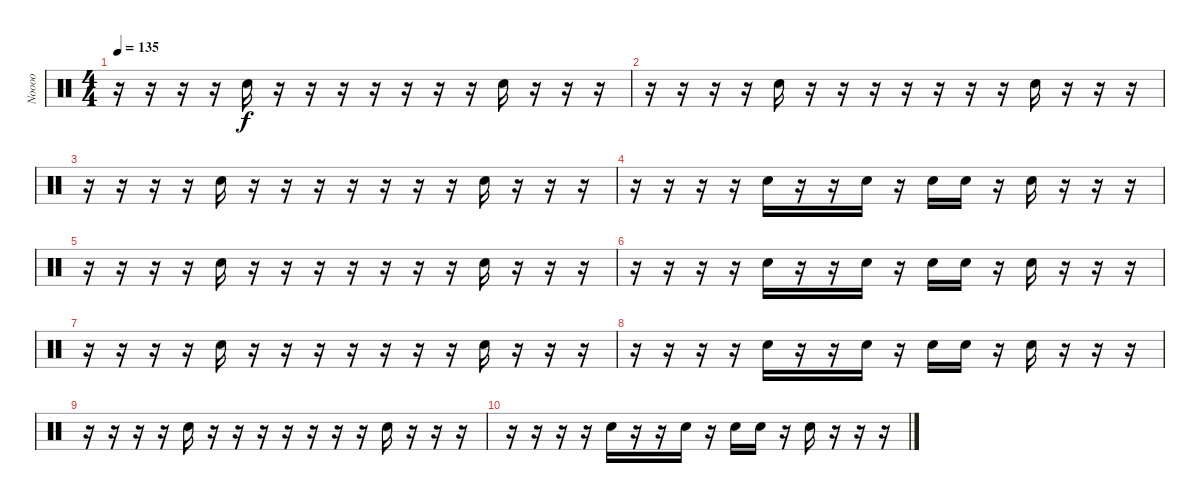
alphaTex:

\track ("Noooo" "Noooo") {instrument percussion}
\staff {score}
\articulation defaults
\ts (4 4)
\tempo 135
\clef neutral
\ks c
r.16{dy f} r.16 r.16 r.16 "Hand Clap (hit)".16 r.16 r.16 r.16 r.16 r.16 r.16 r.16 "Hand Clap (hit)".16 r.16 r.16 r.16 |
r.16 r.16 r.16 r.16 "Hand Clap (hit)".16 r.16 r.16 r.16 r.16 r.16 r.16 r.16 "Hand Clap (hit)".16 r.16 r.16 r.16 |
r.16 r.16 r.16 r.16 "Hand Clap (hit)".16 r.16 r.16 r.16 r.16 r.16 r.16 r.16 "Hand Clap (hit)".16 r.16 r.16 r.16 |
r.16 r.16 r.16 r.16 "Hand Clap (hit)".16 r.16 r.16 "Hand Clap (hit)".16 r.16 "Hand Clap (hit)".16 "Hand Clap (hit)".16 r.16 "Hand Clap (hit)".16 r.16 r.16 r.16 |
r.16 r.16 r.16 r.16 "Hand Clap (hit)".16 r.16 r.16 r.16 r.16 r.16 r.16 r.16 "Hand Clap (hit)".16 r.16 r.16 r.16 |
r.16 r.16 r.16 r.16 "Hand Clap (hit)".16 r.16 r.16 "Hand Clap (hit)".16 r.16 "Hand Clap (hit)".16 "Hand Clap (hit)".16 r.16 "Hand Clap (hit)".16 r.16 r.16 r.16 |
r.16 r.16 r.16 r.16 "Hand Clap (hit)".16 r.16 r.16 r.16 r.16 r.16 r.16 r.16 "Hand Clap (hit)".16 r.16 r.16 r.16 |
r.16 r.16 r.16 r.16 "Hand Clap (hit)".16 r.16 r.16 "Hand Clap (hit)".16 r.16 "Hand Clap (hit)".16 "Hand Clap (hit)".16 r.16 "Hand Clap (hit)".16 r.16 r.16 r.16 |
r.16 r.16 r.16 r.16 "Hand Clap (hit)".16 r.16 r.16 r.16 r.16 r.16 r.16 r.16 "Hand Clap (hit)".16 r.16 r.16 r.16 |
r.16 r.16 r.16 r.16 "Hand Clap (hit)".16 r.16 r.16 "Hand Clap (hit)".16 r.16 "Hand Clap (hit)".16 "Hand Clap (hit)".16 r.16 "Hand Clap (hit)".16 r.16 r.16 r.16
